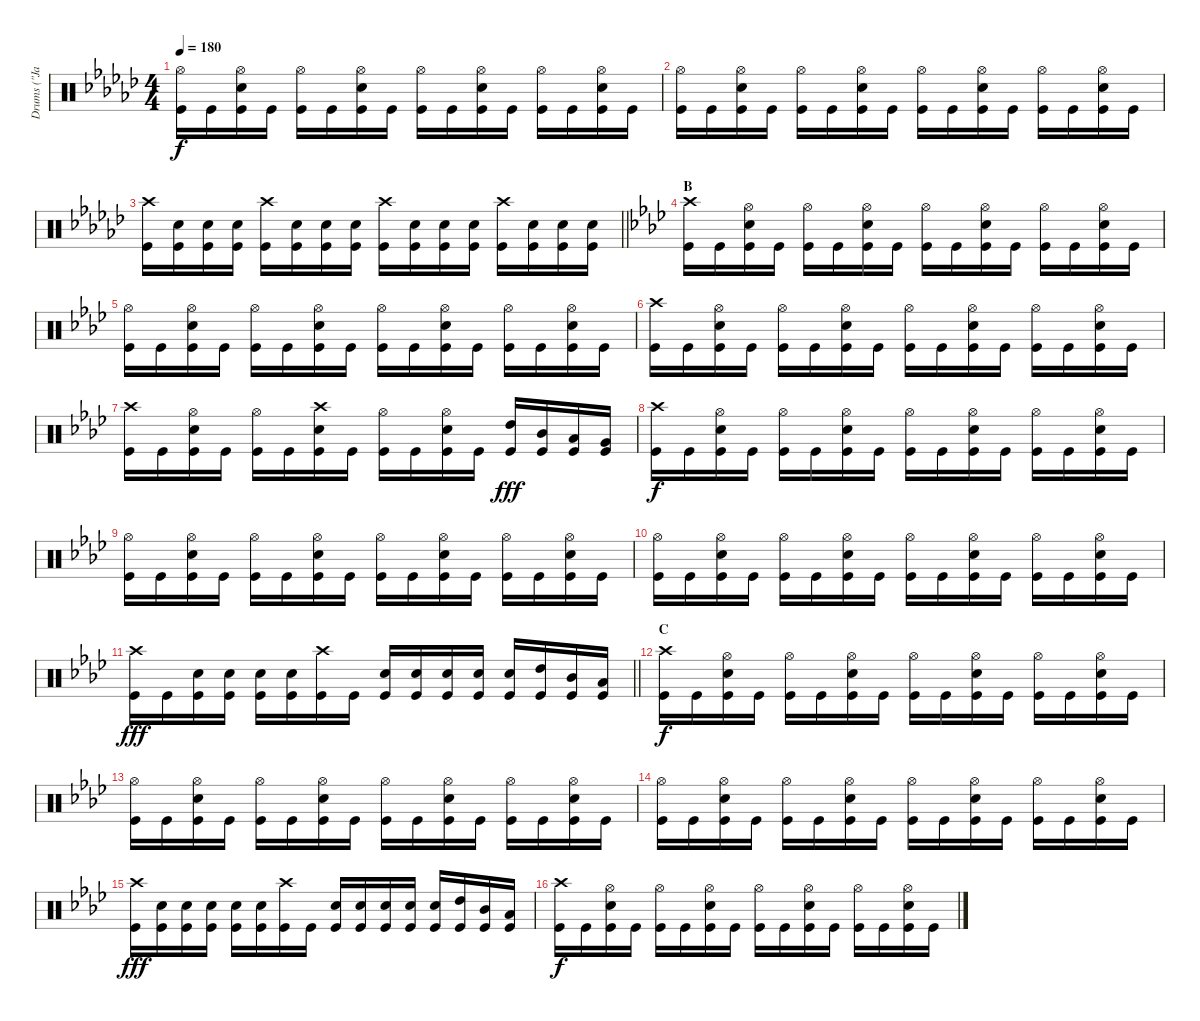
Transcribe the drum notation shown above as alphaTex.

\track ("Drums (\"Jane\")" "Drums (\"Ja") {instrument percussion}
\staff {score}
\articulation defaults
\ts (4 4)
\tempo 180
\clef neutral
\ks gb
("Hi-Hat (open)" "Kick (hit)").16{dy f} "Kick (hit)".16 ("Hi-Hat (open)" "Snare (hit) 2" "Kick (hit)").16 "Kick (hit)".16 ("Hi-Hat (open)" "Kick (hit)").16 "Kick (hit)".16 ("Hi-Hat (open)" "Snare (hit) 2" "Kick (hit)").16 "Kick (hit)".16 ("Hi-Hat (open)" "Kick (hit)").16 "Kick (hit)".16 ("Hi-Hat (open)" "Snare (hit) 2" "Kick (hit)").16 "Kick (hit)".16 ("Hi-Hat (open)" "Kick (hit)").16 "Kick (hit)".16 ("Hi-Hat (open)" "Snare (hit) 2" "Kick (hit)").16 "Kick (hit)".16 |
("Hi-Hat (open)" "Kick (hit)").16 "Kick (hit)".16 ("Hi-Hat (open)" "Snare (hit) 2" "Kick (hit)").16 "Kick (hit)".16 ("Hi-Hat (open)" "Kick (hit)").16 "Kick (hit)".16 ("Hi-Hat (open)" "Snare (hit) 2" "Kick (hit)").16 "Kick (hit)".16 ("Hi-Hat (open)" "Kick (hit)").16 "Kick (hit)".16 ("Hi-Hat (open)" "Snare (hit) 2" "Kick (hit)").16 "Kick (hit)".16 ("Hi-Hat (open)" "Kick (hit)").16 "Kick (hit)".16 ("Hi-Hat (open)" "Snare (hit) 2" "Kick (hit)").16 "Kick (hit)".16 |
\barLineRight lightlight
("Crash high (hit)" "Kick (hit)").16 ("Snare (hit) 2" "Kick (hit)").16 ("Snare (hit) 2" "Kick (hit)").16 ("Snare (hit) 2" "Kick (hit)").16 ("Crash high (hit)" "Kick (hit)").16 ("Snare (hit) 2" "Kick (hit)").16 ("Snare (hit) 2" "Kick (hit)").16 ("Snare (hit) 2" "Kick (hit)").16 ("Crash high (hit)" "Kick (hit)").16 ("Snare (hit) 2" "Kick (hit)").16 ("Snare (hit) 2" "Kick (hit)").16 ("Snare (hit) 2" "Kick (hit)").16 ("Crash high (hit)" "Kick (hit)").16 ("Snare (hit) 2" "Kick (hit)").16 ("Snare (hit) 2" "Kick (hit)").16 ("Snare (hit) 2" "Kick (hit)").16 |
\section ("" "B")
\ks ab
("Crash high (hit)" "Kick (hit)").16 "Kick (hit)".16 ("Hi-Hat (open)" "Snare (hit) 2" "Kick (hit)").16 "Kick (hit)".16 ("Hi-Hat (open)" "Kick (hit)").16 "Kick (hit)".16 ("Hi-Hat (open)" "Snare (hit) 2" "Kick (hit)").16 "Kick (hit)".16 ("Hi-Hat (open)" "Kick (hit)").16 "Kick (hit)".16 ("Hi-Hat (open)" "Snare (hit) 2" "Kick (hit)").16 "Kick (hit)".16 ("Hi-Hat (open)" "Kick (hit)").16 "Kick (hit)".16 ("Hi-Hat (open)" "Snare (hit) 2" "Kick (hit)").16 "Kick (hit)".16 |
("Hi-Hat (open)" "Kick (hit)").16 "Kick (hit)".16 ("Hi-Hat (open)" "Snare (hit) 2" "Kick (hit)").16 "Kick (hit)".16 ("Hi-Hat (open)" "Kick (hit)").16 "Kick (hit)".16 ("Hi-Hat (open)" "Snare (hit) 2" "Kick (hit)").16 "Kick (hit)".16 ("Hi-Hat (open)" "Kick (hit)").16 "Kick (hit)".16 ("Hi-Hat (open)" "Snare (hit) 2" "Kick (hit)").16 "Kick (hit)".16 ("Hi-Hat (open)" "Kick (hit)").16 "Kick (hit)".16 ("Hi-Hat (open)" "Snare (hit) 2" "Kick (hit)").16 "Kick (hit)".16 |
("Crash high (hit)" "Kick (hit)").16 "Kick (hit)".16 ("Hi-Hat (open)" "Snare (hit) 2" "Kick (hit)").16 "Kick (hit)".16 ("Hi-Hat (open)" "Kick (hit)").16 "Kick (hit)".16 ("Hi-Hat (open)" "Snare (hit) 2" "Kick (hit)").16 "Kick (hit)".16 ("Hi-Hat (open)" "Kick (hit)").16 "Kick (hit)".16 ("Hi-Hat (open)" "Snare (hit) 2" "Kick (hit)").16 "Kick (hit)".16 ("Hi-Hat (open)" "Kick (hit)").16 "Kick (hit)".16 ("Hi-Hat (open)" "Snare (hit) 2" "Kick (hit)").16 "Kick (hit)".16 |
("Crash high (hit)" "Kick (hit)").16 "Kick (hit)".16 ("Hi-Hat (open)" "Snare (hit) 2" "Kick (hit)").16 "Kick (hit)".16 ("Hi-Hat (open)" "Kick (hit)").16 "Kick (hit)".16 ("Crash high (hit)" "Snare (hit) 2" "Kick (hit)").16 "Kick (hit)".16 ("Hi-Hat (open)" "Kick (hit)").16 "Kick (hit)".16 ("Hi-Hat (open)" "Snare (hit) 2" "Kick (hit)").16 "Kick (hit)".16 ("High Tom (hit)" "Kick (hit)").16{dy fff} ("Mid Tom (hit)" "Kick (hit)").16 ("Low Tom (hit)" "Kick (hit)").16 ("Very Low Tom (hit)" "Kick (hit)").16 |
("Crash high (hit)" "Kick (hit)").16{dy f} "Kick (hit)".16 ("Hi-Hat (open)" "Snare (hit) 2" "Kick (hit)").16 "Kick (hit)".16 ("Hi-Hat (open)" "Kick (hit)").16 "Kick (hit)".16 ("Hi-Hat (open)" "Snare (hit) 2" "Kick (hit)").16 "Kick (hit)".16 ("Hi-Hat (open)" "Kick (hit)").16 "Kick (hit)".16 ("Hi-Hat (open)" "Snare (hit) 2" "Kick (hit)").16 "Kick (hit)".16 ("Hi-Hat (open)" "Kick (hit)").16 "Kick (hit)".16 ("Hi-Hat (open)" "Snare (hit) 2" "Kick (hit)").16 "Kick (hit)".16 |
("Hi-Hat (open)" "Kick (hit)").16 "Kick (hit)".16 ("Hi-Hat (open)" "Snare (hit) 2" "Kick (hit)").16 "Kick (hit)".16 ("Hi-Hat (open)" "Kick (hit)").16 "Kick (hit)".16 ("Hi-Hat (open)" "Snare (hit) 2" "Kick (hit)").16 "Kick (hit)".16 ("Hi-Hat (open)" "Kick (hit)").16 "Kick (hit)".16 ("Hi-Hat (open)" "Snare (hit) 2" "Kick (hit)").16 "Kick (hit)".16 ("Hi-Hat (open)" "Kick (hit)").16 "Kick (hit)".16 ("Hi-Hat (open)" "Snare (hit) 2" "Kick (hit)").16 "Kick (hit)".16 |
("Hi-Hat (open)" "Kick (hit)").16 "Kick (hit)".16 ("Hi-Hat (open)" "Snare (hit) 2" "Kick (hit)").16 "Kick (hit)".16 ("Hi-Hat (open)" "Kick (hit)").16 "Kick (hit)".16 ("Hi-Hat (open)" "Snare (hit) 2" "Kick (hit)").16 "Kick (hit)".16 ("Hi-Hat (open)" "Kick (hit)").16 "Kick (hit)".16 ("Hi-Hat (open)" "Snare (hit) 2" "Kick (hit)").16 "Kick (hit)".16 ("Hi-Hat (open)" "Kick (hit)").16 "Kick (hit)".16 ("Hi-Hat (open)" "Snare (hit) 2" "Kick (hit)").16 "Kick (hit)".16 |
\barLineRight lightlight
("Crash high (hit)" "Kick (hit)").16{dy fff} "Kick (hit)".16 ("Snare (hit) 2" "Kick (hit)").16 ("Snare (hit) 2" "Kick (hit)").16 ("Snare (hit) 2" "Kick (hit)").16 ("Snare (hit) 2" "Kick (hit)").16 ("Crash high (hit)" "Kick (hit)").16 "Kick (hit)".16 ("Snare (hit) 2" "Kick (hit)").16 ("Snare (hit) 2" "Kick (hit)").16 ("Snare (hit) 2" "Kick (hit)").16 ("Snare (hit) 2" "Kick (hit)").16 ("Snare (hit) 2" "Kick (hit)").16 ("High Tom (hit)" "Kick (hit)").16 ("Mid Tom (hit)" "Kick (hit)").16 ("Low Tom (hit)" "Kick (hit)").16 |
\section ("" "C")
("Crash high (hit)" "Kick (hit)").16{dy f} "Kick (hit)".16 ("Hi-Hat (open)" "Snare (hit) 2" "Kick (hit)").16 "Kick (hit)".16 ("Hi-Hat (open)" "Kick (hit)").16 "Kick (hit)".16 ("Hi-Hat (open)" "Snare (hit) 2" "Kick (hit)").16 "Kick (hit)".16 ("Hi-Hat (open)" "Kick (hit)").16 "Kick (hit)".16 ("Hi-Hat (open)" "Snare (hit) 2" "Kick (hit)").16 "Kick (hit)".16 ("Hi-Hat (open)" "Kick (hit)").16 "Kick (hit)".16 ("Hi-Hat (open)" "Snare (hit) 2" "Kick (hit)").16 "Kick (hit)".16 |
("Hi-Hat (open)" "Kick (hit)").16 "Kick (hit)".16 ("Hi-Hat (open)" "Snare (hit) 2" "Kick (hit)").16 "Kick (hit)".16 ("Hi-Hat (open)" "Kick (hit)").16 "Kick (hit)".16 ("Hi-Hat (open)" "Snare (hit) 2" "Kick (hit)").16 "Kick (hit)".16 ("Hi-Hat (open)" "Kick (hit)").16 "Kick (hit)".16 ("Hi-Hat (open)" "Snare (hit) 2" "Kick (hit)").16 "Kick (hit)".16 ("Hi-Hat (open)" "Kick (hit)").16 "Kick (hit)".16 ("Hi-Hat (open)" "Snare (hit) 2" "Kick (hit)").16 "Kick (hit)".16 |
("Hi-Hat (open)" "Kick (hit)").16 "Kick (hit)".16 ("Hi-Hat (open)" "Snare (hit) 2" "Kick (hit)").16 "Kick (hit)".16 ("Hi-Hat (open)" "Kick (hit)").16 "Kick (hit)".16 ("Hi-Hat (open)" "Snare (hit) 2" "Kick (hit)").16 "Kick (hit)".16 ("Hi-Hat (open)" "Kick (hit)").16 "Kick (hit)".16 ("Hi-Hat (open)" "Snare (hit) 2" "Kick (hit)").16 "Kick (hit)".16 ("Hi-Hat (open)" "Kick (hit)").16 "Kick (hit)".16 ("Hi-Hat (open)" "Snare (hit) 2" "Kick (hit)").16 "Kick (hit)".16 |
("Crash high (hit)" "Kick (hit)").16{dy fff} ("Snare (hit) 2" "Kick (hit)").16 ("Snare (hit) 2" "Kick (hit)").16 ("Snare (hit) 2" "Kick (hit)").16 ("Snare (hit) 2" "Kick (hit)").16 ("Snare (hit) 2" "Kick (hit)").16 ("Crash high (hit)" "Kick (hit)").16 "Kick (hit)".16 ("Snare (hit) 2" "Kick (hit)").16 ("Snare (hit) 2" "Kick (hit)").16 ("Snare (hit) 2" "Kick (hit)").16 ("Snare (hit) 2" "Kick (hit)").16 ("Snare (hit) 2" "Kick (hit)").16 ("High Tom (hit)" "Kick (hit)").16 ("Mid Tom (hit)" "Kick (hit)").16 ("Low Tom (hit)" "Kick (hit)").16 |
("Crash high (hit)" "Kick (hit)").16{dy f} "Kick (hit)".16 ("Hi-Hat (open)" "Snare (hit) 2" "Kick (hit)").16 "Kick (hit)".16 ("Hi-Hat (open)" "Kick (hit)").16 "Kick (hit)".16 ("Hi-Hat (open)" "Snare (hit) 2" "Kick (hit)").16 "Kick (hit)".16 ("Hi-Hat (open)" "Kick (hit)").16 "Kick (hit)".16 ("Hi-Hat (open)" "Snare (hit) 2" "Kick (hit)").16 "Kick (hit)".16 ("Hi-Hat (open)" "Kick (hit)").16 "Kick (hit)".16 ("Hi-Hat (open)" "Snare (hit) 2" "Kick (hit)").16 "Kick (hit)".16
